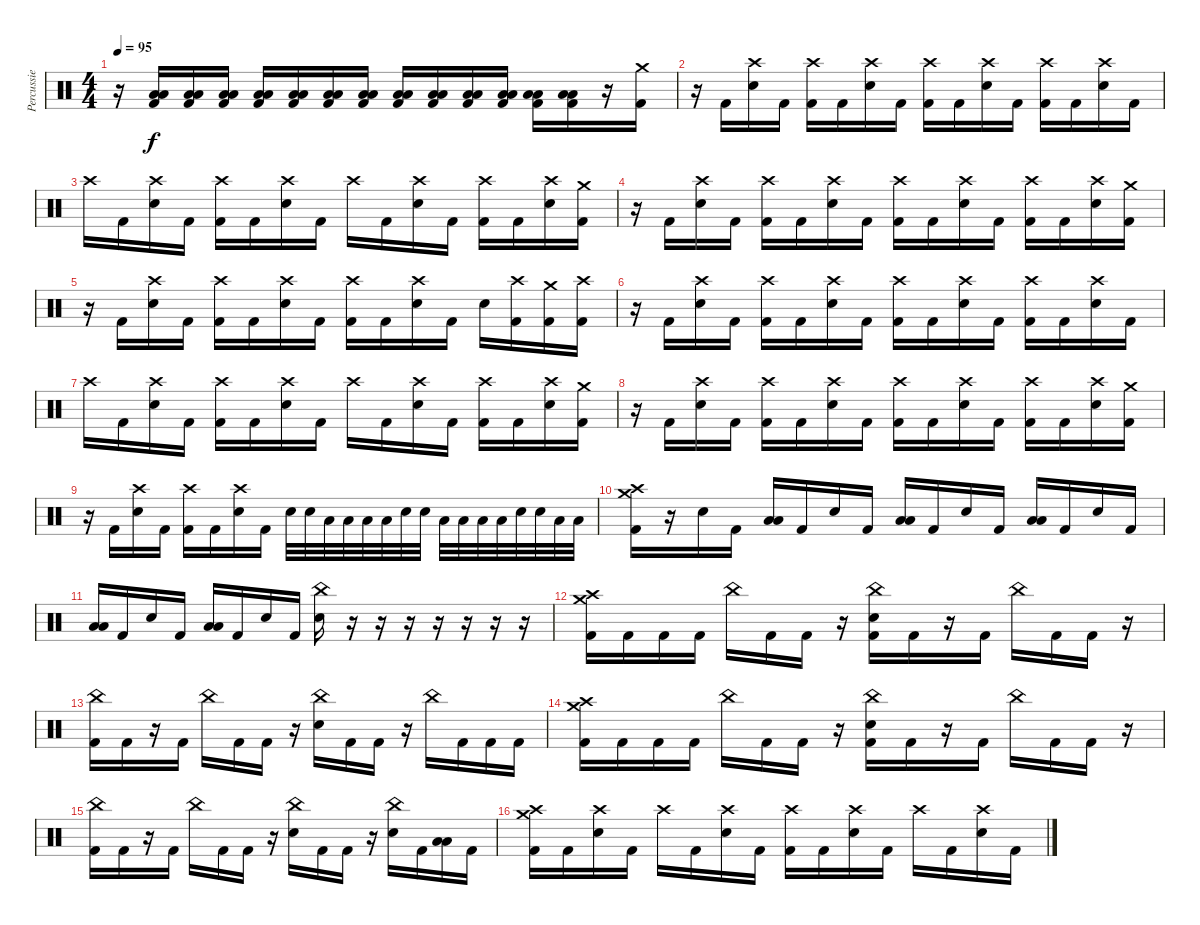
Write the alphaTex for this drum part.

\track ("Percussie" "Percussie") {instrument percussion}
\staff {score}
\articulation defaults
\ts (4 4)
\tempo 95
\clef neutral
\ks c
r.16{dy f} ("Low Tom (hit)" "Low Floor Tom (hit)" "Kick (hit) 2").16 ("Low Tom (hit)" "Low Floor Tom (hit)" "Kick (hit) 2").16 ("Low Tom (hit)" "Low Floor Tom (hit)" "Kick (hit) 2").16 ("Low Tom (hit)" "Low Floor Tom (hit)" "Kick (hit) 2").16 ("Low Tom (hit)" "Low Floor Tom (hit)" "Kick (hit) 2").16 ("Low Tom (hit)" "Low Floor Tom (hit)" "Kick (hit) 2").16 ("Low Tom (hit)" "Low Floor Tom (hit)" "Kick (hit) 2").16 ("Low Tom (hit)" "Low Floor Tom (hit)" "Kick (hit) 2").16 ("Low Tom (hit)" "Low Floor Tom (hit)" "Kick (hit) 2").16 ("Low Tom (hit)" "Low Floor Tom (hit)" "Kick (hit) 2").16 ("Low Tom (hit)" "Low Floor Tom (hit)" "Kick (hit) 2").16 ("Low Tom (hit)" "Low Floor Tom (hit)" "Kick (hit) 2").16 ("Low Tom (hit)" "Low Floor Tom (hit)" "Kick (hit) 2").16 r.16 ("Crash medium (hit)" "Kick (hit) 2").16 |
r.16 "Kick (hit) 2".16 ("Crash high (hit)" "Electric Snare (hit)").16 "Kick (hit) 2".16 ("Crash high (hit)" "Kick (hit) 2").16 "Kick (hit) 2".16 ("Crash high (hit)" "Electric Snare (hit)").16 "Kick (hit) 2".16 ("Crash high (hit)" "Kick (hit) 2").16 "Kick (hit) 2".16 ("Crash high (hit)" "Electric Snare (hit)").16 "Kick (hit) 2".16 ("Crash high (hit)" "Kick (hit) 2").16 "Kick (hit) 2".16 ("Crash high (hit)" "Electric Snare (hit)").16 "Kick (hit) 2".16 |
"Crash high (hit)".16 "Kick (hit) 2".16 ("Crash high (hit)" "Electric Snare (hit)").16 "Kick (hit) 2".16 ("Crash high (hit)" "Kick (hit) 2").16 "Kick (hit) 2".16 ("Crash high (hit)" "Electric Snare (hit)").16 "Kick (hit) 2".16 "Crash high (hit)".16 "Kick (hit) 2".16 ("Crash high (hit)" "Electric Snare (hit)").16 "Kick (hit) 2".16 ("Crash high (hit)" "Kick (hit) 2").16 "Kick (hit) 2".16 ("Crash high (hit)" "Electric Snare (hit)").16 ("Crash medium (hit)" "Kick (hit) 2").16 |
r.16 "Kick (hit) 2".16 ("Crash high (hit)" "Electric Snare (hit)").16 "Kick (hit) 2".16 ("Crash high (hit)" "Kick (hit) 2").16 "Kick (hit) 2".16 ("Crash high (hit)" "Electric Snare (hit)").16 "Kick (hit) 2".16 ("Crash high (hit)" "Kick (hit) 2").16 "Kick (hit) 2".16 ("Crash high (hit)" "Electric Snare (hit)").16 "Kick (hit) 2".16 ("Crash high (hit)" "Kick (hit) 2").16 "Kick (hit) 2".16 ("Crash high (hit)" "Electric Snare (hit)").16 ("Crash medium (hit)" "Kick (hit) 2").16 |
r.16 "Kick (hit) 2".16 ("Crash high (hit)" "Electric Snare (hit)").16 "Kick (hit) 2".16 ("Crash high (hit)" "Kick (hit) 2").16 "Kick (hit) 2".16 ("Crash high (hit)" "Electric Snare (hit)").16 "Kick (hit) 2".16 ("Crash high (hit)" "Kick (hit) 2").16 "Kick (hit) 2".16 ("Crash high (hit)" "Electric Snare (hit)").16 "Kick (hit) 2".16 "Electric Snare (hit)".16 ("Crash high (hit)" "Kick (hit) 2").16 ("Crash medium (hit)" "Kick (hit) 2").16 ("Crash high (hit)" "Kick (hit) 2").16 |
r.16 "Kick (hit) 2".16 ("Crash high (hit)" "Electric Snare (hit)").16 "Kick (hit) 2".16 ("Crash high (hit)" "Kick (hit) 2").16 "Kick (hit) 2".16 ("Crash high (hit)" "Electric Snare (hit)").16 "Kick (hit) 2".16 ("Crash high (hit)" "Kick (hit) 2").16 "Kick (hit) 2".16 ("Crash high (hit)" "Electric Snare (hit)").16 "Kick (hit) 2".16 ("Crash high (hit)" "Kick (hit) 2").16 "Kick (hit) 2".16 ("Crash high (hit)" "Electric Snare (hit)").16 "Kick (hit) 2".16 |
"Crash high (hit)".16 "Kick (hit) 2".16 ("Crash high (hit)" "Electric Snare (hit)").16 "Kick (hit) 2".16 ("Crash high (hit)" "Kick (hit) 2").16 "Kick (hit) 2".16 ("Crash high (hit)" "Electric Snare (hit)").16 "Kick (hit) 2".16 "Crash high (hit)".16 "Kick (hit) 2".16 ("Crash high (hit)" "Electric Snare (hit)").16 "Kick (hit) 2".16 ("Crash high (hit)" "Kick (hit) 2").16 "Kick (hit) 2".16 ("Crash high (hit)" "Electric Snare (hit)").16 ("Crash medium (hit)" "Kick (hit) 2").16 |
r.16 "Kick (hit) 2".16 ("Crash high (hit)" "Electric Snare (hit)").16 "Kick (hit) 2".16 ("Crash high (hit)" "Kick (hit) 2").16 "Kick (hit) 2".16 ("Crash high (hit)" "Electric Snare (hit)").16 "Kick (hit) 2".16 ("Crash high (hit)" "Kick (hit) 2").16 "Kick (hit) 2".16 ("Crash high (hit)" "Electric Snare (hit)").16 "Kick (hit) 2".16 ("Crash high (hit)" "Kick (hit) 2").16 "Kick (hit) 2".16 ("Crash high (hit)" "Electric Snare (hit)").16 ("Crash medium (hit)" "Kick (hit) 2").16 |
r.16 "Kick (hit) 2".16 ("Crash high (hit)" "Electric Snare (hit)").16 "Kick (hit) 2".16 ("Crash high (hit)" "Kick (hit) 2").16 "Kick (hit) 2".16 ("Crash high (hit)" "Electric Snare (hit)").16 "Kick (hit) 2".16 "Electric Snare (hit)".32 "Electric Snare (hit)".32 "Low Tom (hit)".32 "Low Tom (hit)".32 "Low Floor Tom (hit)".32 "Low Floor Tom (hit)".32 "Electric Snare (hit)".32 "Electric Snare (hit)".32 "Low Tom (hit)".32 "Low Tom (hit)".32 "Low Floor Tom (hit)".32 "Low Floor Tom (hit)".32 "Electric Snare (hit)".32 "Electric Snare (hit)".32 "Low Tom (hit)".32 "Low Tom (hit)".32 |
("Crash medium (hit)" "Crash high (hit)" "Kick (hit) 2").16 r.16 "Electric Snare (hit)".16 "Kick (hit) 2".16 ("Low Tom (hit)" "Low Floor Tom (hit)").16 "Kick (hit) 2".16 "Electric Snare (hit)".16 "Kick (hit) 2".16 ("Low Tom (hit)" "Low Floor Tom (hit)").16 "Kick (hit) 2".16 "Electric Snare (hit)".16 "Kick (hit) 2".16 ("Low Tom (hit)" "Low Floor Tom (hit)").16 "Kick (hit) 2".16 "Electric Snare (hit)".16 "Kick (hit) 2".16 |
("Low Tom (hit)" "Low Floor Tom (hit)").16 "Kick (hit) 2".16 "Electric Snare (hit)".16 "Kick (hit) 2".16 ("Low Tom (hit)" "Low Floor Tom (hit)").16 "Kick (hit) 2".16 "Electric Snare (hit)".16 "Kick (hit) 2".16 ("China (hit)" "Electric Snare (hit)").16 r.16 r.16 r.16 r.16 r.16 r.16 r.16 |
("Crash medium (hit)" "Crash high (hit)" "Kick (hit) 2").16 "Kick (hit) 2".16 "Kick (hit) 2".16 "Kick (hit) 2".16 "China (hit)".16 "Kick (hit) 2".16 "Kick (hit) 2".16 r.16 ("China (hit)" "Electric Snare (hit)" "Kick (hit) 2").16 "Kick (hit) 2".16 r.16 "Kick (hit) 2".16 "China (hit)".16 "Kick (hit) 2".16 "Kick (hit) 2".16 r.16 |
("China (hit)" "Kick (hit) 2").16 "Kick (hit) 2".16 r.16 "Kick (hit) 2".16 "China (hit)".16 "Kick (hit) 2".16 "Kick (hit) 2".16 r.16 ("China (hit)" "Electric Snare (hit)").16 "Kick (hit) 2".16 "Kick (hit) 2".16 r.16 "China (hit)".16 "Kick (hit) 2".16 "Kick (hit) 2".16 "Kick (hit) 2".16 |
("Crash medium (hit)" "Crash high (hit)" "Kick (hit) 2").16 "Kick (hit) 2".16 "Kick (hit) 2".16 "Kick (hit) 2".16 "China (hit)".16 "Kick (hit) 2".16 "Kick (hit) 2".16 r.16 ("China (hit)" "Electric Snare (hit)" "Kick (hit) 2").16 "Kick (hit) 2".16 r.16 "Kick (hit) 2".16 "China (hit)".16 "Kick (hit) 2".16 "Kick (hit) 2".16 r.16 |
("China (hit)" "Kick (hit) 2").16 "Kick (hit) 2".16 r.16 "Kick (hit) 2".16 "China (hit)".16 "Kick (hit) 2".16 "Kick (hit) 2".16 r.16 ("China (hit)" "Electric Snare (hit)").16 "Kick (hit) 2".16 "Kick (hit) 2".16 r.16 ("China (hit)" "Electric Snare (hit)").16 "Kick (hit) 2".16 ("Low Tom (hit)" "Low Floor Tom (hit)").16 "Kick (hit) 2".16 |
("Crash medium (hit)" "Crash high (hit)" "Kick (hit) 2").16 "Kick (hit) 2".16 ("Crash high (hit)" "Electric Snare (hit)").16 "Kick (hit) 2".16 "Crash high (hit)".16 "Kick (hit) 2".16 ("Crash high (hit)" "Electric Snare (hit)").16 "Kick (hit) 2".16 ("Crash high (hit)" "Kick (hit) 2").16 "Kick (hit) 2".16 ("Crash high (hit)" "Electric Snare (hit)").16 "Kick (hit) 2".16 "Crash high (hit)".16 "Kick (hit) 2".16 ("Crash high (hit)" "Electric Snare (hit)").16 "Kick (hit) 2".16
